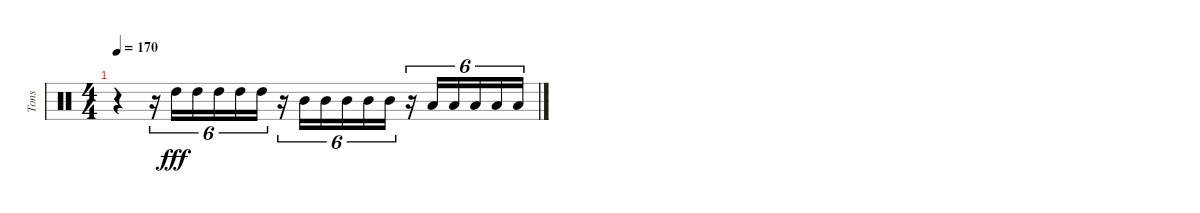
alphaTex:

\track ("Tons" "Tons") {instrument percussion}
\staff {score}
\articulation defaults
\ts (4 4)
\tempo 170
\clef neutral
\ks c
r.4{dy fff} r.16{tu (6 4)} "High Tom (hit)".16{tu (6 4)} "High Tom (hit)".16{tu (6 4)} "High Tom (hit)".16{tu (6 4)} "High Tom (hit)".16{tu (6 4)} "High Tom (hit)".16{tu (6 4)} r.16{tu (6 4)} "Mid Tom (hit)".16{tu (6 4)} "Mid Tom (hit)".16{tu (6 4)} "Mid Tom (hit)".16{tu (6 4)} "Mid Tom (hit)".16{tu (6 4)} "Mid Tom (hit)".16{tu (6 4)} r.16{tu (6 4)} "Low Tom (hit)".16{tu (6 4)} "Low Tom (hit)".16{tu (6 4)} "Low Tom (hit)".16{tu (6 4)} "Low Tom (hit)".16{tu (6 4)} "Low Tom (hit)".16{tu (6 4)}
